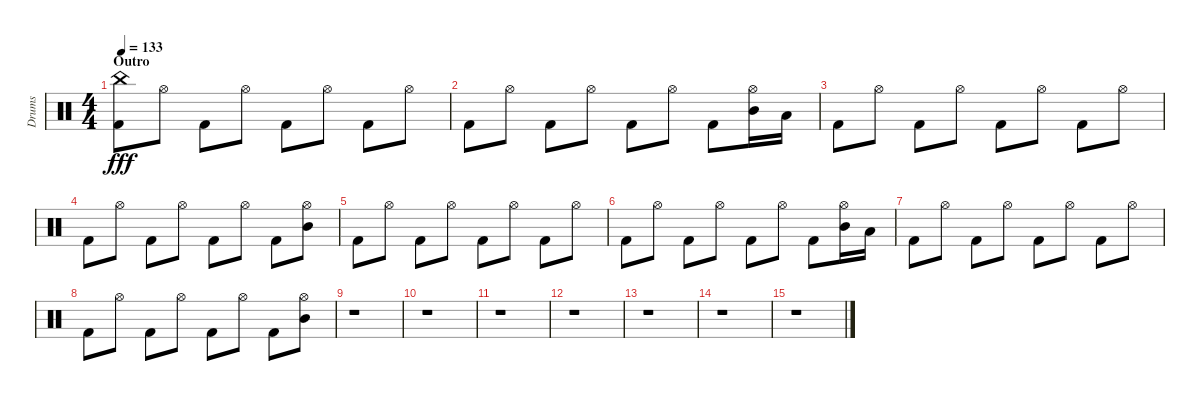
\track ("Drums" "Drums") {instrument percussion}
\staff {score}
\articulation defaults
\ts (4 4)
\section ("" "Outro")
\tempo 133
\clef neutral
\ks c
("Kick (hit) 2" "China (hit)").8{dy fff} "Hi-Hat (open)".8 "Kick (hit) 2".8 "Hi-Hat (open)".8 "Kick (hit) 2".8 "Hi-Hat (open)".8 "Kick (hit) 2".8 "Hi-Hat (open)".8 |
"Kick (hit) 2".8 "Hi-Hat (open)".8 "Kick (hit) 2".8 "Hi-Hat (open)".8 "Kick (hit) 2".8 "Hi-Hat (open)".8 "Kick (hit) 2".8 ("Hi-Hat (open)" "Mid Tom (hit)").16 "Low Tom (hit)".16 |
"Kick (hit) 2".8 "Hi-Hat (open)".8 "Kick (hit) 2".8 "Hi-Hat (open)".8 "Kick (hit) 2".8 "Hi-Hat (open)".8 "Kick (hit) 2".8 "Hi-Hat (open)".8 |
"Kick (hit) 2".8 "Hi-Hat (open)".8 "Kick (hit) 2".8 "Hi-Hat (open)".8 "Kick (hit) 2".8 "Hi-Hat (open)".8 "Kick (hit) 2".8 ("Hi-Hat (open)" "Mid Tom (hit)").8 |
"Kick (hit) 2".8 "Hi-Hat (open)".8 "Kick (hit) 2".8 "Hi-Hat (open)".8 "Kick (hit) 2".8 "Hi-Hat (open)".8 "Kick (hit) 2".8 "Hi-Hat (open)".8 |
"Kick (hit) 2".8 "Hi-Hat (open)".8 "Kick (hit) 2".8 "Hi-Hat (open)".8 "Kick (hit) 2".8 "Hi-Hat (open)".8 "Kick (hit) 2".8 ("Hi-Hat (open)" "Mid Tom (hit)").16 "Low Tom (hit)".16 |
"Kick (hit) 2".8 "Hi-Hat (open)".8 "Kick (hit) 2".8 "Hi-Hat (open)".8 "Kick (hit) 2".8 "Hi-Hat (open)".8 "Kick (hit) 2".8 "Hi-Hat (open)".8 |
"Kick (hit) 2".8 "Hi-Hat (open)".8 "Kick (hit) 2".8 "Hi-Hat (open)".8 "Kick (hit) 2".8 "Hi-Hat (open)".8 "Kick (hit) 2".8 ("Hi-Hat (open)" "Mid Tom (hit)").8 |
r.1 |
r.1 |
r.1 |
r.1 |
r.1 |
r.1 |
r.1
